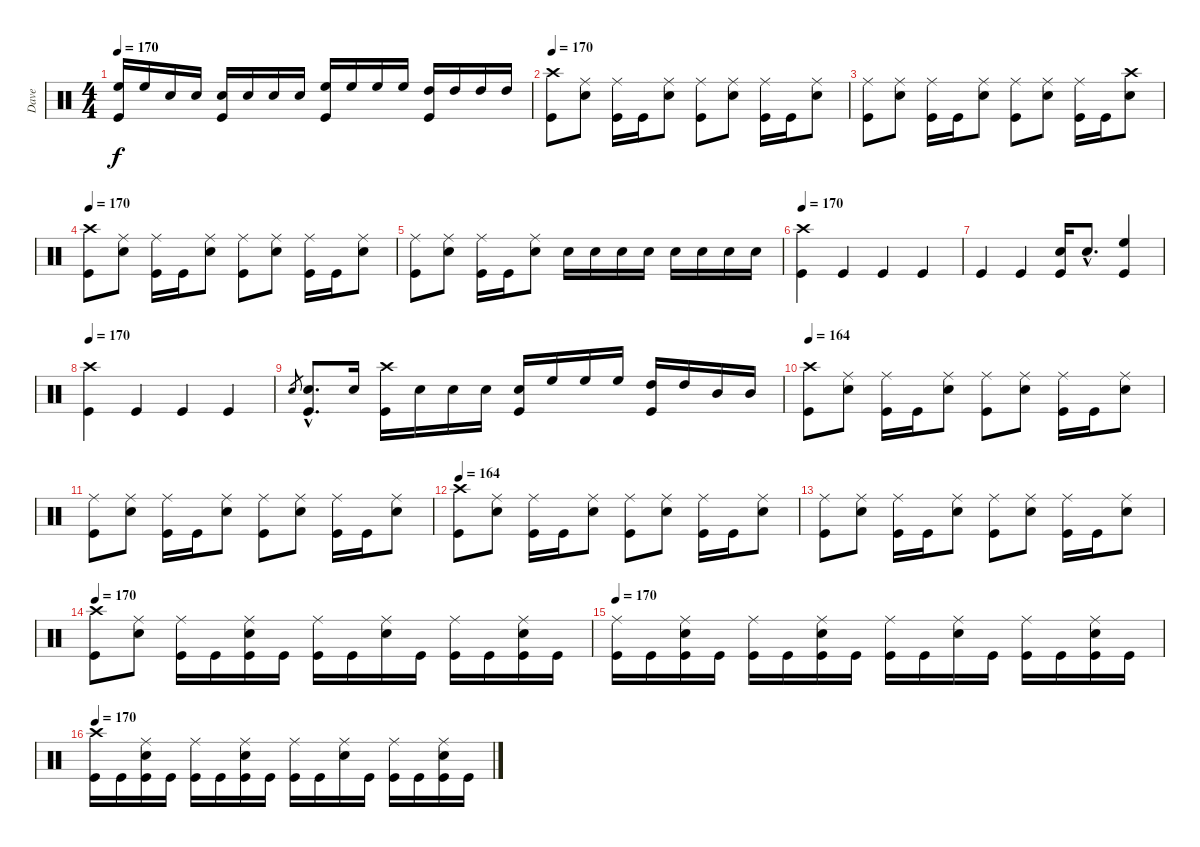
\track ("Dave" "Dave") {instrument percussion}
\staff {score}
\articulation defaults
\ts (4 4)
\tempo 170
\clef neutral
\ks c
("High Floor Tom (hit)" "Kick (hit)").16{dy f} "High Floor Tom (hit)".16 "Snare (hit) 2".16 "Snare (hit) 2".16 ("Snare (hit) 2" "Kick (hit)").16 "Snare (hit) 2".16 "Snare (hit) 2".16 "Snare (hit) 2".16 ("High Floor Tom (hit)" "Kick (hit)").16 "High Floor Tom (hit)".16 "High Floor Tom (hit)".16 "High Floor Tom (hit)".16 ("High Tom (hit)" "Kick (hit)").16 "High Tom (hit)".16 "High Tom (hit)".16 "High Tom (hit)".16 |
\tempo 170
("Crash high (hit)" "Kick (hit)").8 ("Ride (middle)" "Snare (hit) 2").8 ("Ride (middle)" "Kick (hit)").16 "Kick (hit)".16 ("Ride (middle)" "Snare (hit) 2").8 ("Ride (middle)" "Kick (hit)").8 ("Ride (middle)" "Snare (hit) 2").8 ("Ride (middle)" "Kick (hit)").16 "Kick (hit)".16 ("Ride (middle)" "Snare (hit) 2").8 |
("Ride (middle)" "Kick (hit)").8 ("Ride (middle)" "Snare (hit) 2").8 ("Ride (middle)" "Kick (hit)").16 "Kick (hit)".16 ("Ride (middle)" "Snare (hit) 2").8 ("Ride (middle)" "Kick (hit)").8 ("Ride (middle)" "Snare (hit) 2").8 ("Ride (middle)" "Kick (hit)").16 "Kick (hit)".16 ("Crash high (hit)" "Snare (hit) 2").8 |
\tempo 170
("Crash high (hit)" "Kick (hit)").8 ("Ride (middle)" "Snare (hit) 2").8 ("Ride (middle)" "Kick (hit)").16 "Kick (hit)".16 ("Ride (middle)" "Snare (hit) 2").8 ("Ride (middle)" "Kick (hit)").8 ("Ride (middle)" "Snare (hit) 2").8 ("Ride (middle)" "Kick (hit)").16 "Kick (hit)".16 ("Ride (middle)" "Snare (hit) 2").8 |
("Ride (middle)" "Kick (hit)").8 ("Ride (middle)" "Snare (hit) 2").8 ("Ride (middle)" "Kick (hit)").16 "Kick (hit)".16 ("Ride (middle)" "Snare (hit) 2").8 "Snare (hit) 2".16 "Snare (hit) 2".16 "Snare (hit) 2".16 "Snare (hit) 2".16 "Snare (hit) 2".16 "Snare (hit) 2".16 "Snare (hit) 2".16 "Snare (hit) 2".16 |
\tempo 170
("Crash high (hit)" "Kick (hit)").4 "Kick (hit)".4 "Kick (hit)".4 "Kick (hit)".4 |
"Kick (hit)".4 "Kick (hit)".4 ("Snare (hit) 2" "Kick (hit)").16 "Snare (hit) 2"{hac}.8{d} ("High Floor Tom (hit)" "Kick (hit)").4 |
\tempo 170
("Crash high (hit)" "Kick (hit)").4 "Kick (hit)".4 "Kick (hit)".4 "Kick (hit)".4 |
"Snare (hit) 2".8{gr} ("Snare (hit) 2"{hac} "Kick (hit)"{hac}).8{d} "Snare (hit) 2".16 ("Crash high (hit)" "Kick (hit)").16 "Snare (hit) 2".16 "Snare (hit) 2".16 "Snare (hit) 2".16 ("Snare (hit) 2" "Kick (hit)").16 "High Floor Tom (hit)".16 "High Floor Tom (hit)".16 "High Floor Tom (hit)".16 ("High Tom (hit)" "Kick (hit)").16 "High Tom (hit)".16 "Mid Tom (hit)".16 "Mid Tom (hit)".16 |
\tempo 164
("Crash high (hit)" "Kick (hit)").8 ("Ride (middle)" "Snare (hit) 2").8 ("Ride (middle)" "Kick (hit)").16 "Kick (hit)".16 ("Ride (middle)" "Snare (hit) 2").8 ("Ride (middle)" "Kick (hit)").8 ("Ride (middle)" "Snare (hit) 2").8 ("Ride (middle)" "Kick (hit)").16 "Kick (hit)".16 ("Ride (middle)" "Snare (hit) 2").8 |
("Ride (middle)" "Kick (hit)").8 ("Ride (middle)" "Snare (hit) 2").8 ("Ride (middle)" "Kick (hit)").16 "Kick (hit)".16 ("Ride (middle)" "Snare (hit) 2").8 ("Ride (middle)" "Kick (hit)").8 ("Ride (middle)" "Snare (hit) 2").8 ("Ride (middle)" "Kick (hit)").16 "Kick (hit)".16 ("Ride (middle)" "Snare (hit) 2").8 |
\tempo 164
("Crash high (hit)" "Kick (hit)").8 ("Ride (middle)" "Snare (hit) 2").8 ("Ride (middle)" "Kick (hit)").16 "Kick (hit)".16 ("Ride (middle)" "Snare (hit) 2").8 ("Ride (middle)" "Kick (hit)").8 ("Ride (middle)" "Snare (hit) 2").8 ("Ride (middle)" "Kick (hit)").16 "Kick (hit)".16 ("Ride (middle)" "Snare (hit) 2").8 |
("Ride (middle)" "Kick (hit)").8 ("Ride (middle)" "Snare (hit) 2").8 ("Ride (middle)" "Kick (hit)").16 "Kick (hit)".16 ("Ride (middle)" "Snare (hit) 2").8 ("Ride (middle)" "Kick (hit)").8 ("Ride (middle)" "Snare (hit) 2").8 ("Ride (middle)" "Kick (hit)").16 "Kick (hit)".16 ("Ride (middle)" "Snare (hit) 2").8 |
\tempo 164
\tempo 170
("Crash high (hit)" "Kick (hit)").8 ("Ride (middle)" "Snare (hit) 2").8 ("Ride (middle)" "Kick (hit)").16 "Kick (hit)".16 ("Ride (middle)" "Snare (hit) 2" "Kick (hit)").16 "Kick (hit)".16 ("Ride (middle)" "Kick (hit)").16 "Kick (hit)".16 ("Ride (middle)" "Snare (hit) 2").16 "Kick (hit)".16 ("Ride (middle)" "Kick (hit)").16 "Kick (hit)".16 ("Ride (middle)" "Snare (hit) 2" "Kick (hit)").16 "Kick (hit)".16 |
\tempo 170
("Ride (middle)" "Kick (hit)").16 "Kick (hit)".16 ("Ride (middle)" "Snare (hit) 2" "Kick (hit)").16 "Kick (hit)".16 ("Ride (middle)" "Kick (hit)").16 "Kick (hit)".16 ("Ride (middle)" "Snare (hit) 2" "Kick (hit)").16 "Kick (hit)".16 ("Ride (middle)" "Kick (hit)").16 "Kick (hit)".16 ("Ride (middle)" "Snare (hit) 2").16 "Kick (hit)".16 ("Ride (middle)" "Kick (hit)").16 "Kick (hit)".16 ("Ride (middle)" "Snare (hit) 2" "Kick (hit)").16 "Kick (hit)".16 |
\tempo 164
\tempo 170
("Crash high (hit)" "Kick (hit)").16 "Kick (hit)".16 ("Ride (middle)" "Snare (hit) 2" "Kick (hit)").16 "Kick (hit)".16 ("Ride (middle)" "Kick (hit)").16 "Kick (hit)".16 ("Ride (middle)" "Snare (hit) 2" "Kick (hit)").16 "Kick (hit)".16 ("Ride (middle)" "Kick (hit)").16 "Kick (hit)".16 ("Ride (middle)" "Snare (hit) 2").16 "Kick (hit)".16 ("Ride (middle)" "Kick (hit)").16 "Kick (hit)".16 ("Ride (middle)" "Snare (hit) 2" "Kick (hit)").16 "Kick (hit)".16
